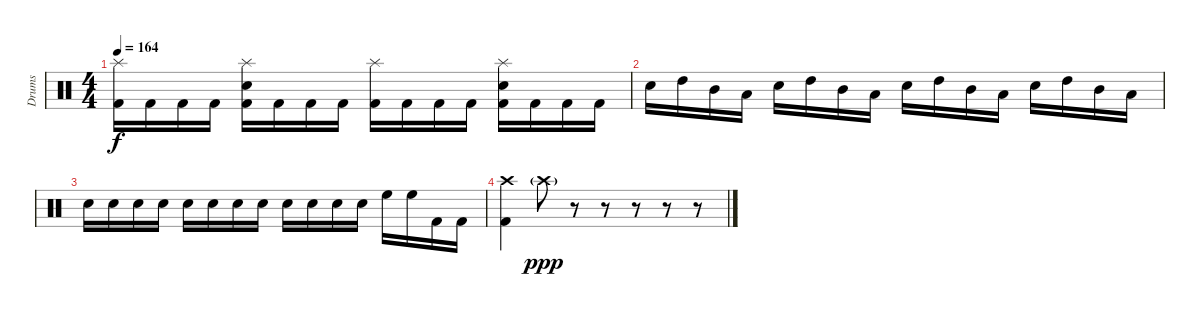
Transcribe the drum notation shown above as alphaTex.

\track ("Drums" "Drums") {instrument percussion}
\staff {score}
\articulation defaults
\ts (4 4)
\tempo 164
\clef neutral
\ks c
("Splash (hit)" "Kick (hit) 2").16{dy f} "Kick (hit) 2".16 "Kick (hit) 2".16 "Kick (hit) 2".16 ("Splash (hit)" "Electric Snare (hit)" "Kick (hit) 2").16 "Kick (hit) 2".16 "Kick (hit) 2".16 "Kick (hit) 2".16 ("Splash (hit)" "Kick (hit) 2").16 "Kick (hit) 2".16 "Kick (hit) 2".16 "Kick (hit) 2".16 ("Splash (hit)" "Electric Snare (hit)" "Kick (hit) 2").16 "Kick (hit) 2".16 "Kick (hit) 2".16 "Kick (hit) 2".16 |
"Electric Snare (hit)".16 "High Tom (hit)".16 "Mid Tom (hit)".16 "Low Tom (hit)".16 "Electric Snare (hit)".16 "High Tom (hit)".16 "Mid Tom (hit)".16 "Low Tom (hit)".16 "Electric Snare (hit)".16 "High Tom (hit)".16 "Mid Tom (hit)".16 "Low Tom (hit)".16 "Electric Snare (hit)".16 "High Tom (hit)".16 "Mid Tom (hit)".16 "Low Tom (hit)".16 |
"Electric Snare (hit)".16 "Electric Snare (hit)".16 "Electric Snare (hit)".16 "Electric Snare (hit)".16 "Electric Snare (hit)".16 "Electric Snare (hit)".16 "Electric Snare (hit)".16 "Electric Snare (hit)".16 "Electric Snare (hit)".16 "Electric Snare (hit)".16 "Electric Snare (hit)".16 "Electric Snare (hit)".16 "High Floor Tom (hit)".16 "High Floor Tom (hit)".16 "Kick (hit) 2".16 "Kick (hit) 2".16 |
("Crash high (hit)" "Kick (hit) 2").4 "Crash high (hit)"{g}.8{dy ppp volume 0} r.8 r.8 r.8 r.8 r.8
